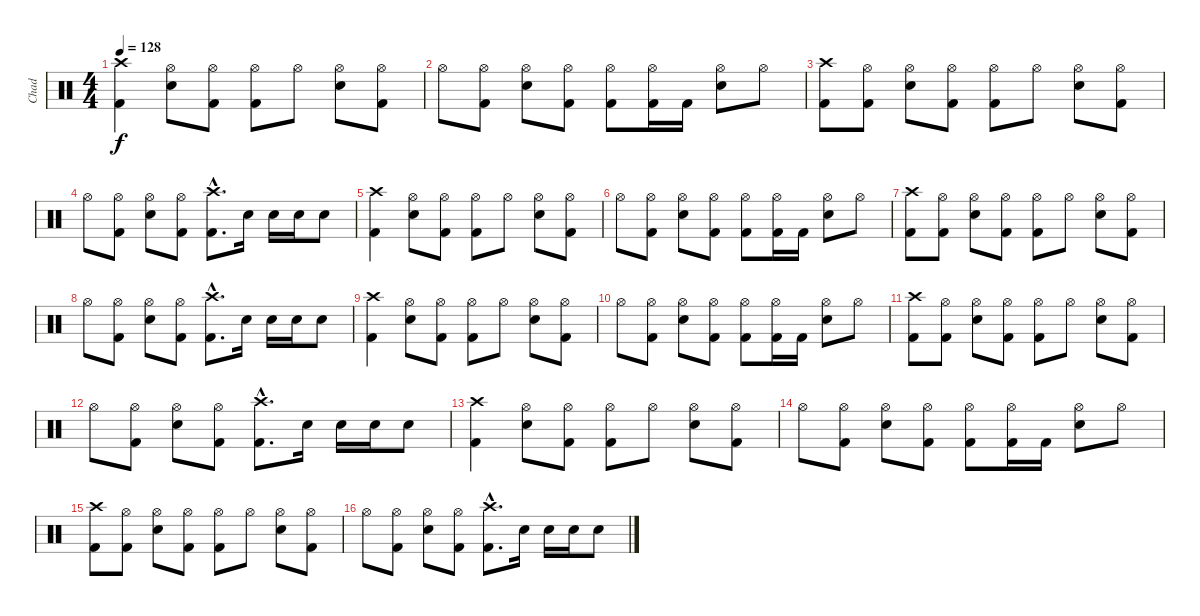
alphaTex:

\track ("Chad" "Chad") {instrument percussion}
\staff {score}
\articulation defaults
\ts (4 4)
\tempo 128
\clef neutral
\ks c
("Crash high (hit)" "Kick (hit) 2").4{dy f} ("Hi-Hat (open)" "Snare (hit) 2").8 ("Hi-Hat (open)" "Kick (hit) 2").8 ("Hi-Hat (open)" "Kick (hit) 2").8 "Hi-Hat (open)".8 ("Hi-Hat (open)" "Snare (hit) 2").8 ("Hi-Hat (open)" "Kick (hit) 2").8 |
"Hi-Hat (open)".8 ("Hi-Hat (open)" "Kick (hit) 2").8 ("Hi-Hat (open)" "Snare (hit) 2").8 ("Hi-Hat (open)" "Kick (hit) 2").8 ("Hi-Hat (open)" "Kick (hit) 2").8 ("Hi-Hat (open)" "Kick (hit) 2").16 "Kick (hit) 2".16 ("Hi-Hat (open)" "Snare (hit) 2").8 "Hi-Hat (open)".8 |
("Crash high (hit)" "Kick (hit) 2").8 ("Hi-Hat (open)" "Kick (hit) 2").8 ("Hi-Hat (open)" "Snare (hit) 2").8 ("Hi-Hat (open)" "Kick (hit) 2").8 ("Hi-Hat (open)" "Kick (hit) 2").8 "Hi-Hat (open)".8 ("Hi-Hat (open)" "Snare (hit) 2").8 ("Hi-Hat (open)" "Kick (hit) 2").8 |
"Hi-Hat (open)".8 ("Hi-Hat (open)" "Kick (hit) 2").8 ("Hi-Hat (open)" "Snare (hit) 2").8 ("Hi-Hat (open)" "Kick (hit) 2").8 ("Crash high (hit)"{hac} "Kick (hit) 2"{hac}).8{d} "Snare (hit) 2".16 "Snare (hit) 2".16 "Snare (hit) 2".16 "Snare (hit) 2".8 |
("Crash high (hit)" "Kick (hit) 2").4 ("Hi-Hat (open)" "Snare (hit) 2").8 ("Hi-Hat (open)" "Kick (hit) 2").8 ("Hi-Hat (open)" "Kick (hit) 2").8 "Hi-Hat (open)".8 ("Hi-Hat (open)" "Snare (hit) 2").8 ("Hi-Hat (open)" "Kick (hit) 2").8 |
"Hi-Hat (open)".8 ("Hi-Hat (open)" "Kick (hit) 2").8 ("Hi-Hat (open)" "Snare (hit) 2").8 ("Hi-Hat (open)" "Kick (hit) 2").8 ("Hi-Hat (open)" "Kick (hit) 2").8 ("Hi-Hat (open)" "Kick (hit) 2").16 "Kick (hit) 2".16 ("Hi-Hat (open)" "Snare (hit) 2").8 "Hi-Hat (open)".8 |
("Crash high (hit)" "Kick (hit) 2").8 ("Hi-Hat (open)" "Kick (hit) 2").8 ("Hi-Hat (open)" "Snare (hit) 2").8 ("Hi-Hat (open)" "Kick (hit) 2").8 ("Hi-Hat (open)" "Kick (hit) 2").8 "Hi-Hat (open)".8 ("Hi-Hat (open)" "Snare (hit) 2").8 ("Hi-Hat (open)" "Kick (hit) 2").8 |
"Hi-Hat (open)".8 ("Hi-Hat (open)" "Kick (hit) 2").8 ("Hi-Hat (open)" "Snare (hit) 2").8 ("Hi-Hat (open)" "Kick (hit) 2").8 ("Crash high (hit)"{hac} "Kick (hit) 2"{hac}).8{d} "Snare (hit) 2".16 "Snare (hit) 2".16 "Snare (hit) 2".16 "Snare (hit) 2".8 |
("Crash high (hit)" "Kick (hit) 2").4 ("Hi-Hat (open)" "Snare (hit) 2").8 ("Hi-Hat (open)" "Kick (hit) 2").8 ("Hi-Hat (open)" "Kick (hit) 2").8 "Hi-Hat (open)".8 ("Hi-Hat (open)" "Snare (hit) 2").8 ("Hi-Hat (open)" "Kick (hit) 2").8 |
"Hi-Hat (open)".8 ("Hi-Hat (open)" "Kick (hit) 2").8 ("Hi-Hat (open)" "Snare (hit) 2").8 ("Hi-Hat (open)" "Kick (hit) 2").8 ("Hi-Hat (open)" "Kick (hit) 2").8 ("Hi-Hat (open)" "Kick (hit) 2").16 "Kick (hit) 2".16 ("Hi-Hat (open)" "Snare (hit) 2").8 "Hi-Hat (open)".8 |
("Crash high (hit)" "Kick (hit) 2").8 ("Hi-Hat (open)" "Kick (hit) 2").8 ("Hi-Hat (open)" "Snare (hit) 2").8 ("Hi-Hat (open)" "Kick (hit) 2").8 ("Hi-Hat (open)" "Kick (hit) 2").8 "Hi-Hat (open)".8 ("Hi-Hat (open)" "Snare (hit) 2").8 ("Hi-Hat (open)" "Kick (hit) 2").8 |
"Hi-Hat (open)".8 ("Hi-Hat (open)" "Kick (hit) 2").8 ("Hi-Hat (open)" "Snare (hit) 2").8 ("Hi-Hat (open)" "Kick (hit) 2").8 ("Crash high (hit)"{hac} "Kick (hit) 2"{hac}).8{d} "Snare (hit) 2".16 "Snare (hit) 2".16 "Snare (hit) 2".16 "Snare (hit) 2".8 |
("Crash high (hit)" "Kick (hit) 2").4 ("Hi-Hat (open)" "Snare (hit) 2").8 ("Hi-Hat (open)" "Kick (hit) 2").8 ("Hi-Hat (open)" "Kick (hit) 2").8 "Hi-Hat (open)".8 ("Hi-Hat (open)" "Snare (hit) 2").8 ("Hi-Hat (open)" "Kick (hit) 2").8 |
"Hi-Hat (open)".8 ("Hi-Hat (open)" "Kick (hit) 2").8 ("Hi-Hat (open)" "Snare (hit) 2").8 ("Hi-Hat (open)" "Kick (hit) 2").8 ("Hi-Hat (open)" "Kick (hit) 2").8 ("Hi-Hat (open)" "Kick (hit) 2").16 "Kick (hit) 2".16 ("Hi-Hat (open)" "Snare (hit) 2").8 "Hi-Hat (open)".8 |
("Crash high (hit)" "Kick (hit) 2").8 ("Hi-Hat (open)" "Kick (hit) 2").8 ("Hi-Hat (open)" "Snare (hit) 2").8 ("Hi-Hat (open)" "Kick (hit) 2").8 ("Hi-Hat (open)" "Kick (hit) 2").8 "Hi-Hat (open)".8 ("Hi-Hat (open)" "Snare (hit) 2").8 ("Hi-Hat (open)" "Kick (hit) 2").8 |
"Hi-Hat (open)".8 ("Hi-Hat (open)" "Kick (hit) 2").8 ("Hi-Hat (open)" "Snare (hit) 2").8 ("Hi-Hat (open)" "Kick (hit) 2").8 ("Crash high (hit)"{hac} "Kick (hit) 2"{hac}).8{d} "Snare (hit) 2".16 "Snare (hit) 2".16 "Snare (hit) 2".16 "Snare (hit) 2".8
